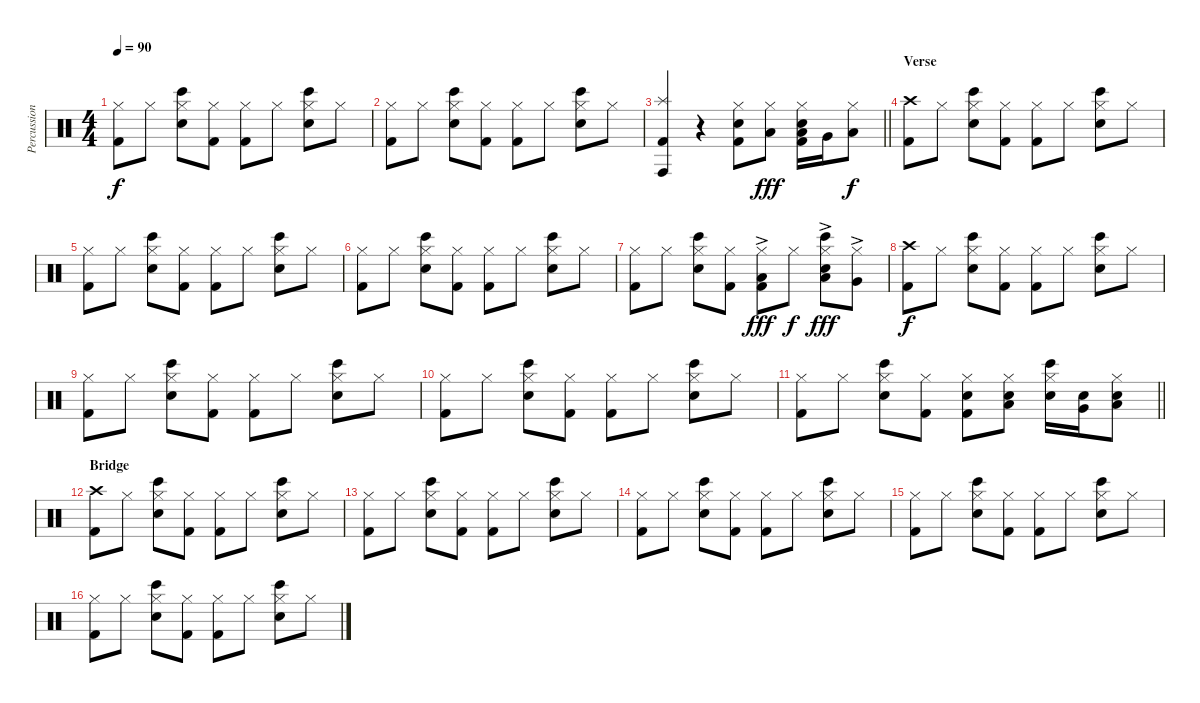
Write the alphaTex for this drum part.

\track ("Percussion" "Percussion") {instrument percussion}
\staff {score}
\articulation defaults
\ts (4 4)
\tempo 90
\clef neutral
\ks c
("Hi-Hat (closed)" "Kick (hit) 2").8{dy f} "Hi-Hat (closed)".8 ("Hi-Hat (closed)" "Bongo High (hit)" "Snare (hit) 2").8 ("Hi-Hat (closed)" "Kick (hit) 2").8 ("Hi-Hat (closed)" "Kick (hit) 2").8 "Hi-Hat (closed)".8 ("Hi-Hat (closed)" "Bongo High (hit)" "Snare (hit) 2").8 "Hi-Hat (closed)".8 |
("Hi-Hat (closed)" "Kick (hit) 2").8 "Hi-Hat (closed)".8 ("Hi-Hat (closed)" "Bongo High (hit)" "Snare (hit) 2").8 ("Hi-Hat (closed)" "Kick (hit) 2").8 ("Hi-Hat (closed)" "Kick (hit) 2").8 "Hi-Hat (closed)".8 ("Hi-Hat (closed)" "Bongo High (hit)" "Snare (hit) 2").8 "Hi-Hat (closed)".8 |
\barLineRight lightlight
("Splash (hit)" "Conga high (hit)" "Kick (hit) 2").4 r.4 ("Hi-Hat (closed)" "Snare (hit) 2" "Kick (hit) 2").8 ("Hi-Hat (closed)" "Low Tom (hit)").8{dy fff} ("Hi-Hat (closed)" "Low Tom (hit)" "Snare (hit) 2" "Kick (hit) 2").16 "Very Low Tom (hit)".16 ("Hi-Hat (closed)" "Low Floor Tom (hit)").8{dy f} |
\section ("" "Verse")
("Crash high (hit)" "Kick (hit) 2").8 "Hi-Hat (closed)".8 ("Hi-Hat (closed)" "Bongo High (hit)" "Snare (hit) 2").8 ("Hi-Hat (closed)" "Kick (hit) 2").8 ("Hi-Hat (closed)" "Kick (hit) 2").8 "Hi-Hat (closed)".8 ("Hi-Hat (closed)" "Bongo High (hit)" "Snare (hit) 2").8 "Hi-Hat (closed)".8 |
("Hi-Hat (closed)" "Kick (hit) 2").8 "Hi-Hat (closed)".8 ("Hi-Hat (closed)" "Bongo High (hit)" "Snare (hit) 2").8 ("Hi-Hat (closed)" "Kick (hit) 2").8 ("Hi-Hat (closed)" "Kick (hit) 2").8 "Hi-Hat (closed)".8 ("Hi-Hat (closed)" "Bongo High (hit)" "Snare (hit) 2").8 "Hi-Hat (closed)".8 |
("Hi-Hat (closed)" "Kick (hit) 2").8 "Hi-Hat (closed)".8 ("Hi-Hat (closed)" "Bongo High (hit)" "Snare (hit) 2").8 ("Hi-Hat (closed)" "Kick (hit) 2").8 ("Hi-Hat (closed)" "Kick (hit) 2").8 "Hi-Hat (closed)".8 ("Hi-Hat (closed)" "Bongo High (hit)" "Snare (hit) 2").8 "Hi-Hat (closed)".8 |
("Hi-Hat (closed)" "Kick (hit) 2").8 "Hi-Hat (closed)".8 ("Hi-Hat (closed)" "Bongo High (hit)" "Snare (hit) 2").8 ("Hi-Hat (closed)" "Kick (hit) 2").8 ("Hi-Hat (closed)" "Low Tom (hit)"{ac} "Kick (hit) 2").8{dy fff} "Hi-Hat (closed)".8{dy f} ("Hi-Hat (closed)" "Bongo High (hit)" "Low Tom (hit)"{ac} "Snare (hit) 2").8{dy fff} ("Hi-Hat (closed)" "Very Low Tom (hit)"{ac}).8 |
("Crash high (hit)" "Kick (hit) 2").8{dy f} "Hi-Hat (closed)".8 ("Hi-Hat (closed)" "Bongo High (hit)" "Snare (hit) 2").8 ("Hi-Hat (closed)" "Kick (hit) 2").8 ("Hi-Hat (closed)" "Kick (hit) 2").8 "Hi-Hat (closed)".8 ("Hi-Hat (closed)" "Bongo High (hit)" "Snare (hit) 2").8 "Hi-Hat (closed)".8 |
("Hi-Hat (closed)" "Kick (hit) 2").8 "Hi-Hat (closed)".8 ("Hi-Hat (closed)" "Bongo High (hit)" "Snare (hit) 2").8 ("Hi-Hat (closed)" "Kick (hit) 2").8 ("Hi-Hat (closed)" "Kick (hit) 2").8 "Hi-Hat (closed)".8 ("Hi-Hat (closed)" "Bongo High (hit)" "Snare (hit) 2").8 "Hi-Hat (closed)".8 |
("Hi-Hat (closed)" "Kick (hit) 2").8 "Hi-Hat (closed)".8 ("Hi-Hat (closed)" "Bongo High (hit)" "Snare (hit) 2").8 ("Hi-Hat (closed)" "Kick (hit) 2").8 ("Hi-Hat (closed)" "Kick (hit) 2").8 "Hi-Hat (closed)".8 ("Hi-Hat (closed)" "Bongo High (hit)" "Snare (hit) 2").8 "Hi-Hat (closed)".8 |
\barLineRight lightlight
("Hi-Hat (closed)" "Kick (hit) 2").8 "Hi-Hat (closed)".8 ("Hi-Hat (closed)" "Bongo High (hit)" "Snare (hit) 2").8 ("Hi-Hat (closed)" "Kick (hit) 2").8 ("Hi-Hat (closed)" "Electric Snare (hit)" "Kick (hit) 2").8 ("Hi-Hat (closed)" "Low Tom (hit)" "Electric Snare (hit)").8 ("Hi-Hat (closed)" "Bongo High (hit)" "Snare (hit) 2").16 ("Very Low Tom (hit)" "Electric Snare (hit)").16 ("Hi-Hat (closed)" "Low Tom (hit)" "Snare (hit) 2").8 |
\section ("" "Bridge")
("Crash high (hit)" "Kick (hit) 2").8 "Hi-Hat (closed)".8 ("Hi-Hat (closed)" "Bongo High (hit)" "Snare (hit) 2").8 ("Hi-Hat (closed)" "Kick (hit) 2").8 ("Hi-Hat (closed)" "Kick (hit) 2").8 "Hi-Hat (closed)".8 ("Hi-Hat (closed)" "Bongo High (hit)" "Snare (hit) 2").8 "Hi-Hat (closed)".8 |
("Hi-Hat (closed)" "Kick (hit) 2").8 "Hi-Hat (closed)".8 ("Hi-Hat (closed)" "Bongo High (hit)" "Snare (hit) 2").8 ("Hi-Hat (closed)" "Kick (hit) 2").8 ("Hi-Hat (closed)" "Kick (hit) 2").8 "Hi-Hat (closed)".8 ("Hi-Hat (closed)" "Bongo High (hit)" "Snare (hit) 2").8 "Hi-Hat (closed)".8 |
("Hi-Hat (closed)" "Kick (hit) 2").8 "Hi-Hat (closed)".8 ("Hi-Hat (closed)" "Bongo High (hit)" "Snare (hit) 2").8 ("Hi-Hat (closed)" "Kick (hit) 2").8 ("Hi-Hat (closed)" "Kick (hit) 2").8 "Hi-Hat (closed)".8 ("Hi-Hat (closed)" "Bongo High (hit)" "Snare (hit) 2").8 "Hi-Hat (closed)".8 |
("Hi-Hat (closed)" "Kick (hit) 2").8 "Hi-Hat (closed)".8 ("Hi-Hat (closed)" "Bongo High (hit)" "Snare (hit) 2").8 ("Hi-Hat (closed)" "Kick (hit) 2").8 ("Hi-Hat (closed)" "Kick (hit) 2").8 "Hi-Hat (closed)".8 ("Hi-Hat (closed)" "Bongo High (hit)" "Snare (hit) 2").8 "Hi-Hat (closed)".8 |
("Hi-Hat (closed)" "Kick (hit) 2").8 "Hi-Hat (closed)".8 ("Hi-Hat (closed)" "Bongo High (hit)" "Snare (hit) 2").8 ("Hi-Hat (closed)" "Kick (hit) 2").8 ("Hi-Hat (closed)" "Kick (hit) 2").8 "Hi-Hat (closed)".8 ("Hi-Hat (closed)" "Bongo High (hit)" "Snare (hit) 2").8 "Hi-Hat (closed)".8
